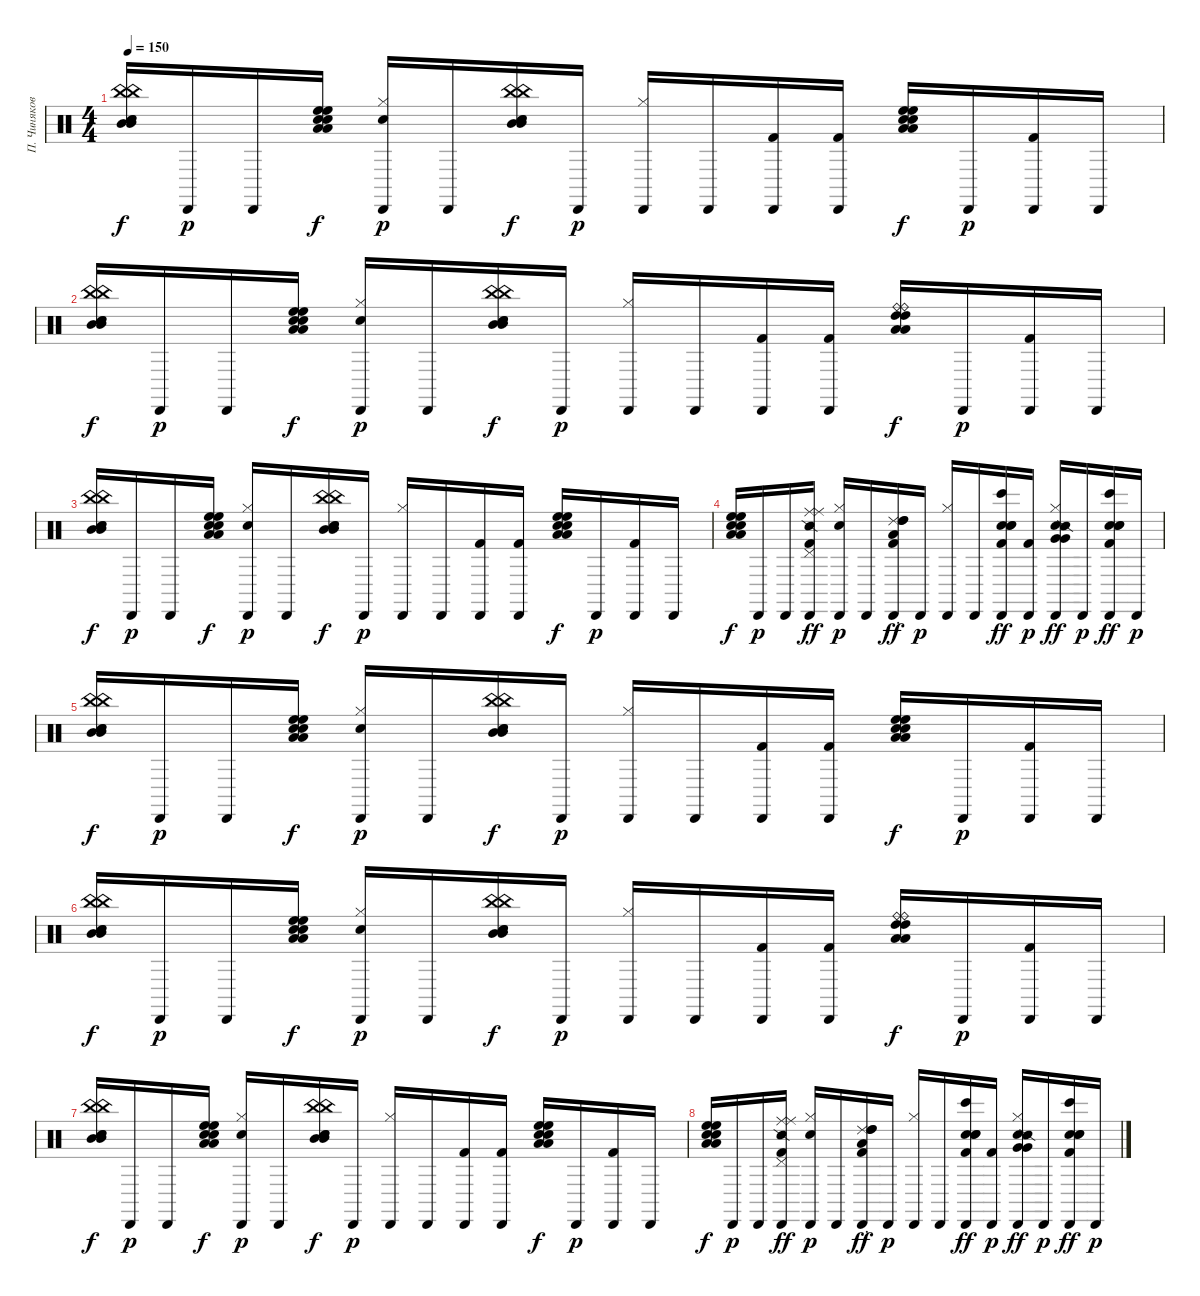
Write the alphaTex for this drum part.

\track ("П. Чиняков" "П. Чиняков") {instrument percussion}
\staff {score}
\articulation defaults
\ts (4 4)
\tempo 150
\clef neutral
\ks c
("China (hit)" "Mid Tom (hit)" "Electric Snare (hit)" "China (hit)" "Mid Tom (hit)" "Electric Snare (hit)").16{dy f} "Cabasa (hit)".16{dy p} "Cabasa (hit)".16 ("High Floor Tom (hit)" "Low Tom (hit)" "Snare (hit) 2" "High Floor Tom (hit)" "Low Tom (hit)" "Snare (hit) 2").16{dy f} ("Hi-Hat (closed)" "Cabasa (hit)" "Snare (hit) 2").16{dy p} "Cabasa (hit)".16 ("China (hit)" "Mid Tom (hit)" "Electric Snare (hit)" "China (hit)" "Mid Tom (hit)" "Electric Snare (hit)").16{dy f} "Cabasa (hit)".16{dy p} ("Hi-Hat (closed)" "Cabasa (hit)").16 "Cabasa (hit)".16 ("Cabasa (hit)" "Kick (hit) 2").16 ("Cabasa (hit)" "Kick (hit) 2").16 ("High Floor Tom (hit)" "Low Tom (hit)" "Snare (hit) 2" "High Floor Tom (hit)" "Low Tom (hit)" "Snare (hit) 2").16{dy f} "Cabasa (hit)".16{dy p} ("Cabasa (hit)" "Kick (hit) 2").16 "Cabasa (hit)".16 |
("China (hit)" "Mid Tom (hit)" "Electric Snare (hit)" "China (hit)" "Mid Tom (hit)" "Electric Snare (hit)").16{dy f} "Cabasa (hit)".16{dy p} "Cabasa (hit)".16 ("High Floor Tom (hit)" "Low Tom (hit)" "Snare (hit) 2" "High Floor Tom (hit)" "Low Tom (hit)" "Snare (hit) 2").16{dy f} ("Hi-Hat (closed)" "Cabasa (hit)" "Snare (hit) 2").16{dy p} "Cabasa (hit)".16 ("China (hit)" "Mid Tom (hit)" "Electric Snare (hit)" "China (hit)" "Mid Tom (hit)" "Electric Snare (hit)").16{dy f} "Cabasa (hit)".16{dy p} ("Hi-Hat (closed)" "Cabasa (hit)").16 "Cabasa (hit)".16 ("Cabasa (hit)" "Kick (hit) 2").16 ("Cabasa (hit)" "Kick (hit) 2").16 ("Ride (bell)" "High Tom (hit)" "Low Floor Tom (hit)" "Ride (bell)" "High Tom (hit)" "Low Floor Tom (hit)").16{dy f} "Cabasa (hit)".16{dy p} ("Cabasa (hit)" "Kick (hit) 2").16 "Cabasa (hit)".16 |
("China (hit)" "Mid Tom (hit)" "Electric Snare (hit)" "China (hit)" "Mid Tom (hit)" "Electric Snare (hit)").16{dy f} "Cabasa (hit)".16{dy p} "Cabasa (hit)".16 ("High Floor Tom (hit)" "Low Tom (hit)" "Snare (hit) 2" "High Floor Tom (hit)" "Low Tom (hit)" "Snare (hit) 2").16{dy f} ("Hi-Hat (closed)" "Cabasa (hit)" "Snare (hit) 2").16{dy p} "Cabasa (hit)".16 ("China (hit)" "Mid Tom (hit)" "Electric Snare (hit)" "China (hit)" "Mid Tom (hit)" "Electric Snare (hit)").16{dy f} "Cabasa (hit)".16{dy p} ("Hi-Hat (closed)" "Cabasa (hit)").16 "Cabasa (hit)".16 ("Cabasa (hit)" "Kick (hit) 2").16 ("Cabasa (hit)" "Kick (hit) 2").16 ("High Floor Tom (hit)" "Low Tom (hit)" "Snare (hit) 2" "High Floor Tom (hit)" "Low Tom (hit)" "Snare (hit) 2").16{dy f} "Cabasa (hit)".16{dy p} ("Cabasa (hit)" "Kick (hit) 2").16 "Cabasa (hit)".16 |
("High Floor Tom (hit)" "Low Tom (hit)" "Snare (hit) 2" "High Floor Tom (hit)" "Low Tom (hit)" "Snare (hit) 2").16{dy f} "Cabasa (hit)".16{dy p} "Cabasa (hit)".16 ("Cabasa (hit)" "Kick (hit) 2" "Snare (side stick) 2" "Ride (middle)" "Pedal Hi-Hat (hit)" "Ride (middle)").16{dy ff} ("Hi-Hat (closed)" "Cabasa (hit)" "Snare (hit) 2").16{dy p} "Cabasa (hit)".16 ("Cabasa (hit)" "Kick (hit) 2" "Ride (choke) 2" "High Tom (hit)" "Low Floor Tom (hit)" "High Tom (hit)").16{dy ff} "Cabasa (hit)".16{dy p} ("Hi-Hat (closed)" "Cabasa (hit)").16 "Cabasa (hit)".16 ("Electric Snare (hit)" "Electric Snare (hit)" "Cabasa (hit)" "Kick (hit) 2" "Bongo High (hit)" "Electric Snare (hit)").16{dy ff} ("Cabasa (hit)" "Kick (hit) 2").16{dy p} ("Very Low Tom (hit)" "Very Low Tom (hit)" "Hi-Hat (closed)" "Cabasa (hit)" "Snare (hit) 2" "Snare (side stick) 2").16{dy ff} "Cabasa (hit)".16{dy p} ("Electric Snare (hit)" "Electric Snare (hit)" "Cabasa (hit)" "Kick (hit) 2" "Bongo High (hit)" "Electric Snare (hit)").16{dy ff} "Cabasa (hit)".16{dy p} |
("China (hit)" "Mid Tom (hit)" "Electric Snare (hit)" "China (hit)" "Mid Tom (hit)" "Electric Snare (hit)").16{dy f} "Cabasa (hit)".16{dy p} "Cabasa (hit)".16 ("High Floor Tom (hit)" "Low Tom (hit)" "Snare (hit) 2" "High Floor Tom (hit)" "Low Tom (hit)" "Snare (hit) 2").16{dy f} ("Hi-Hat (closed)" "Cabasa (hit)" "Snare (hit) 2").16{dy p} "Cabasa (hit)".16 ("China (hit)" "Mid Tom (hit)" "Electric Snare (hit)" "China (hit)" "Mid Tom (hit)" "Electric Snare (hit)").16{dy f} "Cabasa (hit)".16{dy p} ("Hi-Hat (closed)" "Cabasa (hit)").16 "Cabasa (hit)".16 ("Cabasa (hit)" "Kick (hit) 2").16 ("Cabasa (hit)" "Kick (hit) 2").16 ("High Floor Tom (hit)" "Low Tom (hit)" "Snare (hit) 2" "High Floor Tom (hit)" "Low Tom (hit)" "Snare (hit) 2").16{dy f} "Cabasa (hit)".16{dy p} ("Cabasa (hit)" "Kick (hit) 2").16 "Cabasa (hit)".16 |
("China (hit)" "Mid Tom (hit)" "Electric Snare (hit)" "China (hit)" "Mid Tom (hit)" "Electric Snare (hit)").16{dy f} "Cabasa (hit)".16{dy p} "Cabasa (hit)".16 ("High Floor Tom (hit)" "Low Tom (hit)" "Snare (hit) 2" "High Floor Tom (hit)" "Low Tom (hit)" "Snare (hit) 2").16{dy f} ("Hi-Hat (closed)" "Cabasa (hit)" "Snare (hit) 2").16{dy p} "Cabasa (hit)".16 ("China (hit)" "Mid Tom (hit)" "Electric Snare (hit)" "China (hit)" "Mid Tom (hit)" "Electric Snare (hit)").16{dy f} "Cabasa (hit)".16{dy p} ("Hi-Hat (closed)" "Cabasa (hit)").16 "Cabasa (hit)".16 ("Cabasa (hit)" "Kick (hit) 2").16 ("Cabasa (hit)" "Kick (hit) 2").16 ("Ride (bell)" "High Tom (hit)" "Low Floor Tom (hit)" "Ride (bell)" "High Tom (hit)" "Low Floor Tom (hit)").16{dy f} "Cabasa (hit)".16{dy p} ("Cabasa (hit)" "Kick (hit) 2").16 "Cabasa (hit)".16 |
("China (hit)" "Mid Tom (hit)" "Electric Snare (hit)" "China (hit)" "Mid Tom (hit)" "Electric Snare (hit)").16{dy f} "Cabasa (hit)".16{dy p} "Cabasa (hit)".16 ("High Floor Tom (hit)" "Low Tom (hit)" "Snare (hit) 2" "High Floor Tom (hit)" "Low Tom (hit)" "Snare (hit) 2").16{dy f} ("Hi-Hat (closed)" "Cabasa (hit)" "Snare (hit) 2").16{dy p} "Cabasa (hit)".16 ("China (hit)" "Mid Tom (hit)" "Electric Snare (hit)" "China (hit)" "Mid Tom (hit)" "Electric Snare (hit)").16{dy f} "Cabasa (hit)".16{dy p} ("Hi-Hat (closed)" "Cabasa (hit)").16 "Cabasa (hit)".16 ("Cabasa (hit)" "Kick (hit) 2").16 ("Cabasa (hit)" "Kick (hit) 2").16 ("High Floor Tom (hit)" "Low Tom (hit)" "Snare (hit) 2" "High Floor Tom (hit)" "Low Tom (hit)" "Snare (hit) 2").16{dy f} "Cabasa (hit)".16{dy p} ("Cabasa (hit)" "Kick (hit) 2").16 "Cabasa (hit)".16 |
("High Floor Tom (hit)" "Low Tom (hit)" "Snare (hit) 2" "High Floor Tom (hit)" "Low Tom (hit)" "Snare (hit) 2").16{dy f} "Cabasa (hit)".16{dy p} "Cabasa (hit)".16 ("Cabasa (hit)" "Kick (hit) 2" "Snare (side stick) 2" "Ride (middle)" "Pedal Hi-Hat (hit)" "Ride (middle)").16{dy ff} ("Hi-Hat (closed)" "Cabasa (hit)" "Snare (hit) 2").16{dy p} "Cabasa (hit)".16 ("Cabasa (hit)" "Kick (hit) 2" "Ride (choke) 2" "High Tom (hit)" "Low Floor Tom (hit)" "High Tom (hit)").16{dy ff} "Cabasa (hit)".16{dy p} ("Hi-Hat (closed)" "Cabasa (hit)").16 "Cabasa (hit)".16 ("Electric Snare (hit)" "Electric Snare (hit)" "Cabasa (hit)" "Kick (hit) 2" "Bongo High (hit)" "Electric Snare (hit)").16{dy ff} ("Cabasa (hit)" "Kick (hit) 2").16{dy p} ("Very Low Tom (hit)" "Very Low Tom (hit)" "Hi-Hat (closed)" "Cabasa (hit)" "Snare (hit) 2" "Snare (side stick) 2").16{dy ff} "Cabasa (hit)".16{dy p} ("Electric Snare (hit)" "Electric Snare (hit)" "Cabasa (hit)" "Kick (hit) 2" "Bongo High (hit)" "Electric Snare (hit)").16{dy ff} "Cabasa (hit)".16{dy p}
